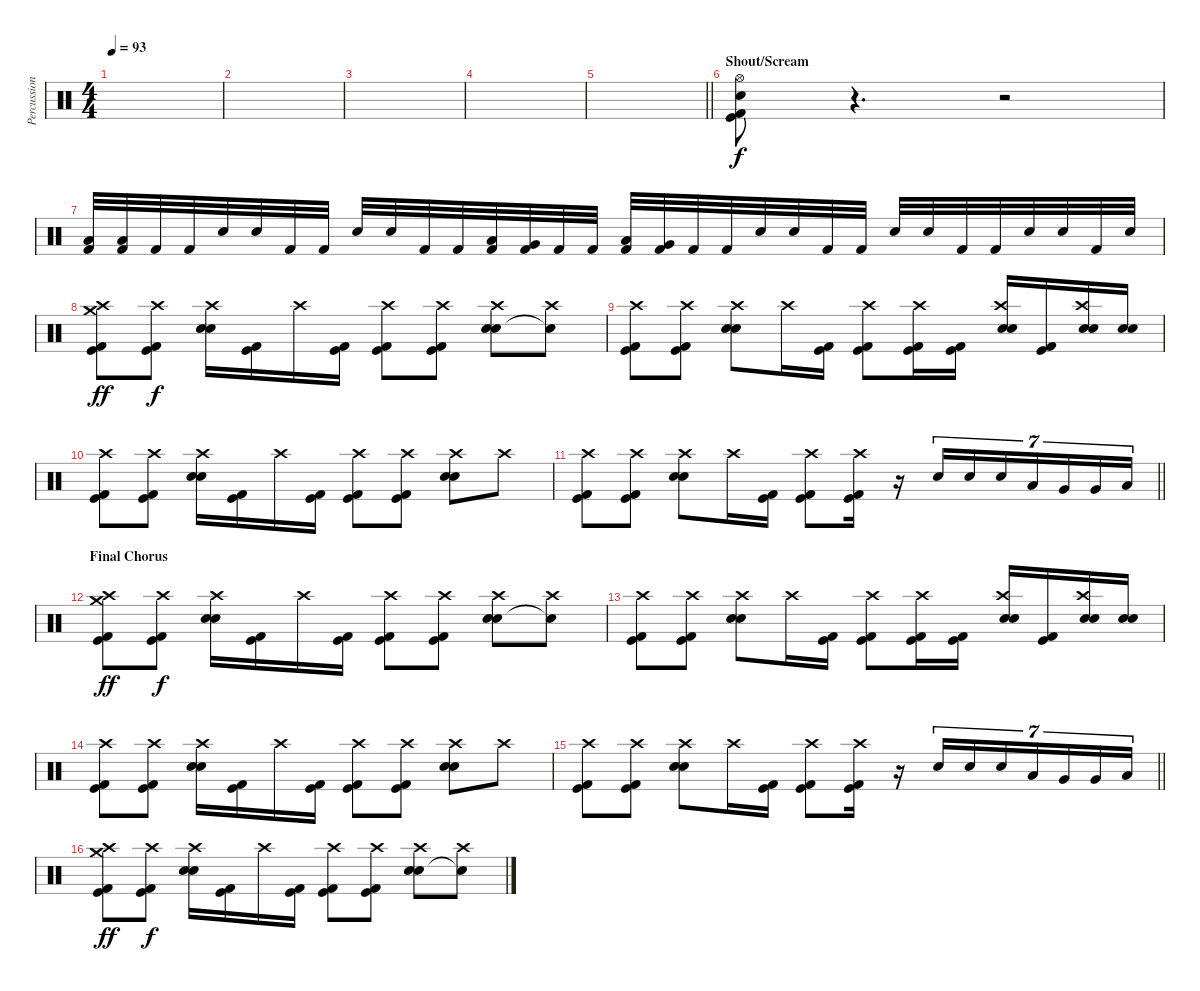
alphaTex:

\track ("Percussion" "Percussion") {instrument percussion}
\staff {score}
\articulation defaults
\ts (4 4)
\tempo 93
\clef neutral
\ks c
|
|
|
|
\barLineRight lightlight
|
\section ("" "Shout/Scream")
("Kick (hit) 2" "Kick (hit)" "Snare (hit) 2" "Hi-Hat (open)").8 r.4{d} r.2 |
("Kick (hit) 2" "Low Tom (hit)").32 ("Kick (hit) 2" "Low Tom (hit)").32 "Kick (hit) 2".32 "Kick (hit) 2".32 "Snare (hit) 2".32 "Snare (hit) 2".32 "Kick (hit) 2".32 "Kick (hit) 2".32 "Snare (hit) 2".32 "Snare (hit) 2".32 "Kick (hit) 2".32 "Kick (hit) 2".32 ("Kick (hit) 2" "Low Tom (hit)").32 ("Kick (hit) 2" "Very Low Tom (hit)").32 "Kick (hit) 2".32 "Kick (hit) 2".32 ("Kick (hit) 2" "Low Floor Tom (hit)").32 ("Kick (hit) 2" "Very Low Tom (hit)").32 "Kick (hit) 2".32 "Kick (hit) 2".32 "Snare (hit) 2".32 "Snare (hit) 2".32 "Kick (hit) 2".32 "Kick (hit) 2".32 "Snare (hit) 2".32 "Snare (hit) 2".32 "Kick (hit) 2".32 "Kick (hit) 2".32 "Snare (hit) 2".32 "Snare (hit) 2".32 "Kick (hit) 2".32 "Snare (hit) 2".32 |
("Kick (hit) 2" "Kick (hit)" "Crash high (hit)" "Crash medium (hit)").8{dy ff} ("Kick (hit) 2" "Kick (hit)" "Crash high (hit)").8{dy f} ("Electric Snare (hit)" "Snare (hit) 2" "Crash high (hit)").16 ("Kick (hit) 2" "Kick (hit)").16 "Crash high (hit)".16 ("Kick (hit) 2" "Kick (hit)").16 ("Kick (hit) 2" "Kick (hit)" "Crash high (hit)").8 ("Kick (hit) 2" "Kick (hit)" "Crash high (hit)").8 ("Electric Snare (hit)" "Snare (hit) 2" "Crash high (hit)").8 ("Crash high (hit)" "Snare (hit)"{t}).8 |
("Kick (hit) 2" "Kick (hit)" "Crash high (hit)").8 ("Kick (hit) 2" "Kick (hit)" "Crash high (hit)").8 ("Electric Snare (hit)" "Snare (hit) 2" "Crash high (hit)").8 "Crash high (hit)".16 ("Kick (hit) 2" "Kick (hit)").16 ("Kick (hit) 2" "Kick (hit)" "Crash high (hit)").8 ("Kick (hit) 2" "Kick (hit)" "Crash high (hit)").16 ("Kick (hit) 2" "Kick (hit)").16 ("Electric Snare (hit)" "Snare (hit) 2" "Crash high (hit)").16 ("Kick (hit) 2" "Kick (hit)").16 ("Electric Snare (hit)" "Snare (hit) 2" "Crash high (hit)").16 ("Electric Snare (hit)" "Snare (hit) 2").16 |
("Kick (hit) 2" "Kick (hit)" "Crash high (hit)").8 ("Kick (hit) 2" "Kick (hit)" "Crash high (hit)").8 ("Electric Snare (hit)" "Snare (hit) 2" "Crash high (hit)").16 ("Kick (hit) 2" "Kick (hit)").16 "Crash high (hit)".16 ("Kick (hit) 2" "Kick (hit)").16 ("Kick (hit) 2" "Kick (hit)" "Crash high (hit)").8 ("Kick (hit) 2" "Kick (hit)" "Crash high (hit)").8 ("Electric Snare (hit)" "Snare (hit) 2" "Crash high (hit)").8 "Crash high (hit)".8 |
\barLineRight lightlight
("Kick (hit) 2" "Kick (hit)" "Crash high (hit)").8 ("Kick (hit) 2" "Kick (hit)" "Crash high (hit)").8 ("Electric Snare (hit)" "Snare (hit) 2" "Crash high (hit)").8 "Crash high (hit)".16 ("Kick (hit) 2" "Kick (hit)").16 ("Kick (hit) 2" "Kick (hit)" "Crash high (hit)").8 ("Kick (hit) 2" "Kick (hit)" "Crash high (hit)").16 r.16 "Snare (hit) 2".16{tu (7 4)} "Snare (hit) 2".16{tu (7 4)} "Snare (hit) 2".16{tu (7 4)} "Low Tom (hit)".16{tu (7 4)} "Very Low Tom (hit)".16{tu (7 4)} "Very Low Tom (hit)".16{tu (7 4)} "Low Floor Tom (hit)".16{tu (7 4)} |
\section ("" "Final Chorus")
("Kick (hit) 2" "Kick (hit)" "Crash high (hit)" "Crash medium (hit)").8{dy ff} ("Kick (hit) 2" "Kick (hit)" "Crash high (hit)").8{dy f} ("Electric Snare (hit)" "Snare (hit) 2" "Crash high (hit)").16 ("Kick (hit) 2" "Kick (hit)").16 "Crash high (hit)".16 ("Kick (hit) 2" "Kick (hit)").16 ("Kick (hit) 2" "Kick (hit)" "Crash high (hit)").8 ("Kick (hit) 2" "Kick (hit)" "Crash high (hit)").8 ("Electric Snare (hit)" "Snare (hit) 2" "Crash high (hit)").8 ("Crash high (hit)" "Snare (hit)"{t}).8 |
("Kick (hit) 2" "Kick (hit)" "Crash high (hit)").8 ("Kick (hit) 2" "Kick (hit)" "Crash high (hit)").8 ("Electric Snare (hit)" "Snare (hit) 2" "Crash high (hit)").8 "Crash high (hit)".16 ("Kick (hit) 2" "Kick (hit)").16 ("Kick (hit) 2" "Kick (hit)" "Crash high (hit)").8 ("Kick (hit) 2" "Kick (hit)" "Crash high (hit)").16 ("Kick (hit) 2" "Kick (hit)").16 ("Electric Snare (hit)" "Snare (hit) 2" "Crash high (hit)").16 ("Kick (hit) 2" "Kick (hit)").16 ("Electric Snare (hit)" "Snare (hit) 2" "Crash high (hit)").16 ("Electric Snare (hit)" "Snare (hit) 2").16 |
("Kick (hit) 2" "Kick (hit)" "Crash high (hit)").8 ("Kick (hit) 2" "Kick (hit)" "Crash high (hit)").8 ("Electric Snare (hit)" "Snare (hit) 2" "Crash high (hit)").16 ("Kick (hit) 2" "Kick (hit)").16 "Crash high (hit)".16 ("Kick (hit) 2" "Kick (hit)").16 ("Kick (hit) 2" "Kick (hit)" "Crash high (hit)").8 ("Kick (hit) 2" "Kick (hit)" "Crash high (hit)").8 ("Electric Snare (hit)" "Snare (hit) 2" "Crash high (hit)").8 "Crash high (hit)".8 |
\barLineRight lightlight
("Kick (hit) 2" "Kick (hit)" "Crash high (hit)").8 ("Kick (hit) 2" "Kick (hit)" "Crash high (hit)").8 ("Electric Snare (hit)" "Snare (hit) 2" "Crash high (hit)").8 "Crash high (hit)".16 ("Kick (hit) 2" "Kick (hit)").16 ("Kick (hit) 2" "Kick (hit)" "Crash high (hit)").8 ("Kick (hit) 2" "Kick (hit)" "Crash high (hit)").16 r.16 "Snare (hit) 2".16{tu (7 4)} "Snare (hit) 2".16{tu (7 4)} "Snare (hit) 2".16{tu (7 4)} "Low Tom (hit)".16{tu (7 4)} "Very Low Tom (hit)".16{tu (7 4)} "Very Low Tom (hit)".16{tu (7 4)} "Low Floor Tom (hit)".16{tu (7 4)} |
("Kick (hit) 2" "Kick (hit)" "Crash high (hit)" "Crash medium (hit)").8{dy ff} ("Kick (hit) 2" "Kick (hit)" "Crash high (hit)").8{dy f} ("Electric Snare (hit)" "Snare (hit) 2" "Crash high (hit)").16 ("Kick (hit) 2" "Kick (hit)").16 "Crash high (hit)".16 ("Kick (hit) 2" "Kick (hit)").16 ("Kick (hit) 2" "Kick (hit)" "Crash high (hit)").8 ("Kick (hit) 2" "Kick (hit)" "Crash high (hit)").8 ("Electric Snare (hit)" "Snare (hit) 2" "Crash high (hit)").8 ("Crash high (hit)" "Snare (hit)"{t}).8
